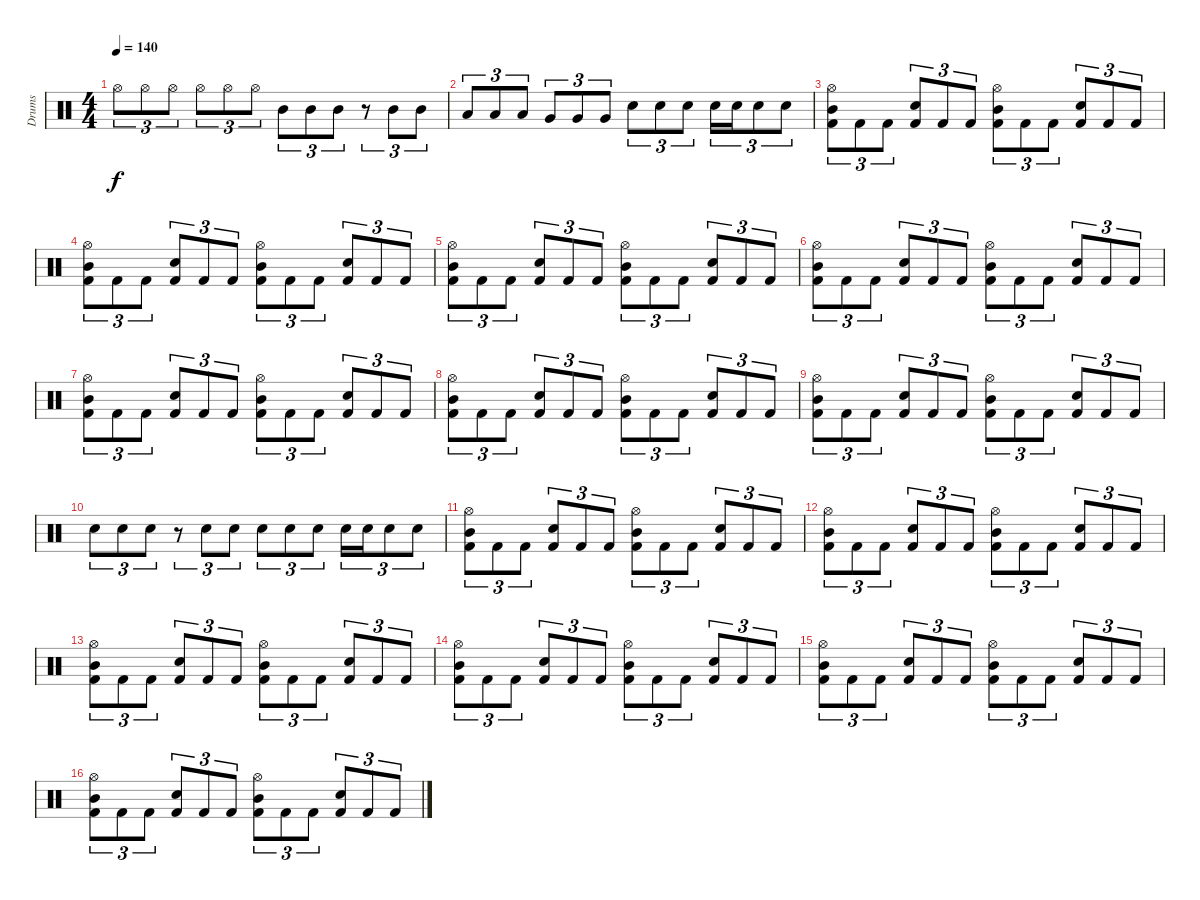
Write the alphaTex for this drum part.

\track ("Drums" "Drums") {instrument percussion}
\staff {score}
\articulation defaults
\ts (4 4)
\tempo 140
\clef neutral
\ks c "Hi-Hat (open)".8{tu (3 2) dy f} "Hi-Hat (open)".8{tu (3 2)} "Hi-Hat (open)".8{tu (3 2)} "Hi-Hat (open)".8{tu (3 2)} "Hi-Hat (open)".8{tu (3 2)} "Hi-Hat (open)".8{tu (3 2)} "Mid Tom (hit)".8{tu (3 2)} "Mid Tom (hit)".8{tu (3 2)} "Mid Tom (hit)".8{tu (3 2)}
r.8{tu (3 2)} "Mid Tom (hit)".8{tu (3 2)} "Mid Tom (hit)".8{tu (3 2)} |
"Low Tom (hit)".8{tu (3 2)} "Low Tom (hit)".8{tu (3 2)} "Low Tom (hit)".8{tu (3 2)} "Very Low Tom (hit)".8{tu (3 2)} "Very Low Tom (hit)".8{tu (3 2)} "Very Low Tom (hit)".8{tu (3 2)} "Snare (hit) 2".8{tu (3 2)} "Snare (hit) 2".8{tu (3 2)} "Snare (hit) 2".8{tu (3 2)} "Electric Snare (hit)".16{tu (3 2)} "Electric Snare (hit)".16{tu (3 2)} "Electric Snare (hit)".8{tu (3 2)} "Electric Snare (hit)".8{tu (3 2)} |
("Hi-Hat (open)" "Mid Tom (hit)" "Kick (hit) 2").8{tu (3 2)} "Kick (hit) 2".8{tu (3 2)} "Kick (hit) 2".8{tu (3 2)} ("Electric Snare (hit)" "Kick (hit) 2").8{tu (3 2)} "Kick (hit) 2".8{tu (3 2)} "Kick (hit) 2".8{tu (3 2)} ("Hi-Hat (open)" "Mid Tom (hit)" "Kick (hit) 2").8{tu (3 2)} "Kick (hit) 2".8{tu (3 2)} "Kick (hit) 2".8{tu (3 2)} ("Electric Snare (hit)" "Kick (hit) 2").8{tu (3 2)} "Kick (hit) 2".8{tu (3 2)} "Kick (hit) 2".8{tu (3 2)} |
("Hi-Hat (open)" "Mid Tom (hit)" "Kick (hit) 2").8{tu (3 2)} "Kick (hit) 2".8{tu (3 2)} "Kick (hit) 2".8{tu (3 2)} ("Electric Snare (hit)" "Kick (hit) 2").8{tu (3 2)} "Kick (hit) 2".8{tu (3 2)} "Kick (hit) 2".8{tu (3 2)} ("Hi-Hat (open)" "Mid Tom (hit)" "Kick (hit) 2").8{tu (3 2)} "Kick (hit) 2".8{tu (3 2)} "Kick (hit) 2".8{tu (3 2)} ("Electric Snare (hit)" "Kick (hit) 2").8{tu (3 2)} "Kick (hit) 2".8{tu (3 2)} "Kick (hit) 2".8{tu (3 2)} |
("Hi-Hat (open)" "Mid Tom (hit)" "Kick (hit) 2").8{tu (3 2)} "Kick (hit) 2".8{tu (3 2)} "Kick (hit) 2".8{tu (3 2)} ("Electric Snare (hit)" "Kick (hit) 2").8{tu (3 2)} "Kick (hit) 2".8{tu (3 2)} "Kick (hit) 2".8{tu (3 2)} ("Hi-Hat (open)" "Mid Tom (hit)" "Kick (hit) 2").8{tu (3 2)} "Kick (hit) 2".8{tu (3 2)} "Kick (hit) 2".8{tu (3 2)} ("Electric Snare (hit)" "Kick (hit) 2").8{tu (3 2)} "Kick (hit) 2".8{tu (3 2)} "Kick (hit) 2".8{tu (3 2)} |
("Hi-Hat (open)" "Mid Tom (hit)" "Kick (hit) 2").8{tu (3 2)} "Kick (hit) 2".8{tu (3 2)} "Kick (hit) 2".8{tu (3 2)} ("Electric Snare (hit)" "Kick (hit) 2").8{tu (3 2)} "Kick (hit) 2".8{tu (3 2)} "Kick (hit) 2".8{tu (3 2)} ("Hi-Hat (open)" "Mid Tom (hit)" "Kick (hit) 2").8{tu (3 2)} "Kick (hit) 2".8{tu (3 2)} "Kick (hit) 2".8{tu (3 2)} ("Electric Snare (hit)" "Kick (hit) 2").8{tu (3 2)} "Kick (hit) 2".8{tu (3 2)} "Kick (hit) 2".8{tu (3 2)} |
("Hi-Hat (open)" "Mid Tom (hit)" "Kick (hit) 2").8{tu (3 2)} "Kick (hit) 2".8{tu (3 2)} "Kick (hit) 2".8{tu (3 2)} ("Electric Snare (hit)" "Kick (hit) 2").8{tu (3 2)} "Kick (hit) 2".8{tu (3 2)} "Kick (hit) 2".8{tu (3 2)} ("Hi-Hat (open)" "Mid Tom (hit)" "Kick (hit) 2").8{tu (3 2)} "Kick (hit) 2".8{tu (3 2)} "Kick (hit) 2".8{tu (3 2)} ("Electric Snare (hit)" "Kick (hit) 2").8{tu (3 2)} "Kick (hit) 2".8{tu (3 2)} "Kick (hit) 2".8{tu (3 2)} |
("Hi-Hat (open)" "Mid Tom (hit)" "Kick (hit) 2").8{tu (3 2)} "Kick (hit) 2".8{tu (3 2)} "Kick (hit) 2".8{tu (3 2)} ("Electric Snare (hit)" "Kick (hit) 2").8{tu (3 2)} "Kick (hit) 2".8{tu (3 2)} "Kick (hit) 2".8{tu (3 2)} ("Hi-Hat (open)" "Mid Tom (hit)" "Kick (hit) 2").8{tu (3 2)} "Kick (hit) 2".8{tu (3 2)} "Kick (hit) 2".8{tu (3 2)} ("Electric Snare (hit)" "Kick (hit) 2").8{tu (3 2)} "Kick (hit) 2".8{tu (3 2)} "Kick (hit) 2".8{tu (3 2)} |
("Hi-Hat (open)" "Mid Tom (hit)" "Kick (hit) 2").8{tu (3 2)} "Kick (hit) 2".8{tu (3 2)} "Kick (hit) 2".8{tu (3 2)} ("Electric Snare (hit)" "Kick (hit) 2").8{tu (3 2)} "Kick (hit) 2".8{tu (3 2)} "Kick (hit) 2".8{tu (3 2)} ("Hi-Hat (open)" "Mid Tom (hit)" "Kick (hit) 2").8{tu (3 2)} "Kick (hit) 2".8{tu (3 2)} "Kick (hit) 2".8{tu (3 2)} ("Electric Snare (hit)" "Kick (hit) 2").8{tu (3 2)} "Kick (hit) 2".8{tu (3 2)} "Kick (hit) 2".8{tu (3 2)} |
"Snare (hit) 2".8{tu (3 2)} "Snare (hit) 2".8{tu (3 2)} "Snare (hit) 2".8{tu (3 2)} r.8{tu (3 2)} "Snare (hit) 2".8{tu (3 2)} "Snare (hit) 2".8{tu (3 2)} "Electric Snare (hit)".8{tu (3 2)} "Electric Snare (hit)".8{tu (3 2)} "Electric Snare (hit)".8{tu (3 2)} "Electric Snare (hit)".16{tu (3 2)} "Electric Snare (hit)".16{tu (3 2)} "Electric Snare (hit)".8{tu (3 2)} "Electric Snare (hit)".8{tu (3 2)} |
("Hi-Hat (open)" "Mid Tom (hit)" "Kick (hit) 2").8{tu (3 2)} "Kick (hit) 2".8{tu (3 2)} "Kick (hit) 2".8{tu (3 2)} ("Electric Snare (hit)" "Kick (hit) 2").8{tu (3 2)} "Kick (hit) 2".8{tu (3 2)} "Kick (hit) 2".8{tu (3 2)} ("Hi-Hat (open)" "Mid Tom (hit)" "Kick (hit) 2").8{tu (3 2)} "Kick (hit) 2".8{tu (3 2)} "Kick (hit) 2".8{tu (3 2)} ("Electric Snare (hit)" "Kick (hit) 2").8{tu (3 2)} "Kick (hit) 2".8{tu (3 2)} "Kick (hit) 2".8{tu (3 2)} |
("Hi-Hat (open)" "Mid Tom (hit)" "Kick (hit) 2").8{tu (3 2)} "Kick (hit) 2".8{tu (3 2)} "Kick (hit) 2".8{tu (3 2)} ("Electric Snare (hit)" "Kick (hit) 2").8{tu (3 2)} "Kick (hit) 2".8{tu (3 2)} "Kick (hit) 2".8{tu (3 2)} ("Hi-Hat (open)" "Mid Tom (hit)" "Kick (hit) 2").8{tu (3 2)} "Kick (hit) 2".8{tu (3 2)} "Kick (hit) 2".8{tu (3 2)} ("Electric Snare (hit)" "Kick (hit) 2").8{tu (3 2)} "Kick (hit) 2".8{tu (3 2)} "Kick (hit) 2".8{tu (3 2)} |
("Hi-Hat (open)" "Mid Tom (hit)" "Kick (hit) 2").8{tu (3 2)} "Kick (hit) 2".8{tu (3 2)} "Kick (hit) 2".8{tu (3 2)} ("Electric Snare (hit)" "Kick (hit) 2").8{tu (3 2)} "Kick (hit) 2".8{tu (3 2)} "Kick (hit) 2".8{tu (3 2)} ("Hi-Hat (open)" "Mid Tom (hit)" "Kick (hit) 2").8{tu (3 2)} "Kick (hit) 2".8{tu (3 2)} "Kick (hit) 2".8{tu (3 2)} ("Electric Snare (hit)" "Kick (hit) 2").8{tu (3 2)} "Kick (hit) 2".8{tu (3 2)} "Kick (hit) 2".8{tu (3 2)} |
("Hi-Hat (open)" "Mid Tom (hit)" "Kick (hit) 2").8{tu (3 2)} "Kick (hit) 2".8{tu (3 2)} "Kick (hit) 2".8{tu (3 2)} ("Electric Snare (hit)" "Kick (hit) 2").8{tu (3 2)} "Kick (hit) 2".8{tu (3 2)} "Kick (hit) 2".8{tu (3 2)} ("Hi-Hat (open)" "Mid Tom (hit)" "Kick (hit) 2").8{tu (3 2)} "Kick (hit) 2".8{tu (3 2)} "Kick (hit) 2".8{tu (3 2)} ("Electric Snare (hit)" "Kick (hit) 2").8{tu (3 2)} "Kick (hit) 2".8{tu (3 2)} "Kick (hit) 2".8{tu (3 2)} |
("Hi-Hat (open)" "Mid Tom (hit)" "Kick (hit) 2").8{tu (3 2)} "Kick (hit) 2".8{tu (3 2)} "Kick (hit) 2".8{tu (3 2)} ("Electric Snare (hit)" "Kick (hit) 2").8{tu (3 2)} "Kick (hit) 2".8{tu (3 2)} "Kick (hit) 2".8{tu (3 2)} ("Hi-Hat (open)" "Mid Tom (hit)" "Kick (hit) 2").8{tu (3 2)} "Kick (hit) 2".8{tu (3 2)} "Kick (hit) 2".8{tu (3 2)} ("Electric Snare (hit)" "Kick (hit) 2").8{tu (3 2)} "Kick (hit) 2".8{tu (3 2)} "Kick (hit) 2".8{tu (3 2)} |
("Hi-Hat (open)" "Mid Tom (hit)" "Kick (hit) 2").8{tu (3 2)} "Kick (hit) 2".8{tu (3 2)} "Kick (hit) 2".8{tu (3 2)} ("Electric Snare (hit)" "Kick (hit) 2").8{tu (3 2)} "Kick (hit) 2".8{tu (3 2)} "Kick (hit) 2".8{tu (3 2)} ("Hi-Hat (open)" "Mid Tom (hit)" "Kick (hit) 2").8{tu (3 2)} "Kick (hit) 2".8{tu (3 2)} "Kick (hit) 2".8{tu (3 2)} ("Electric Snare (hit)" "Kick (hit) 2").8{tu (3 2)} "Kick (hit) 2".8{tu (3 2)} "Kick (hit) 2".8{tu (3 2)}
